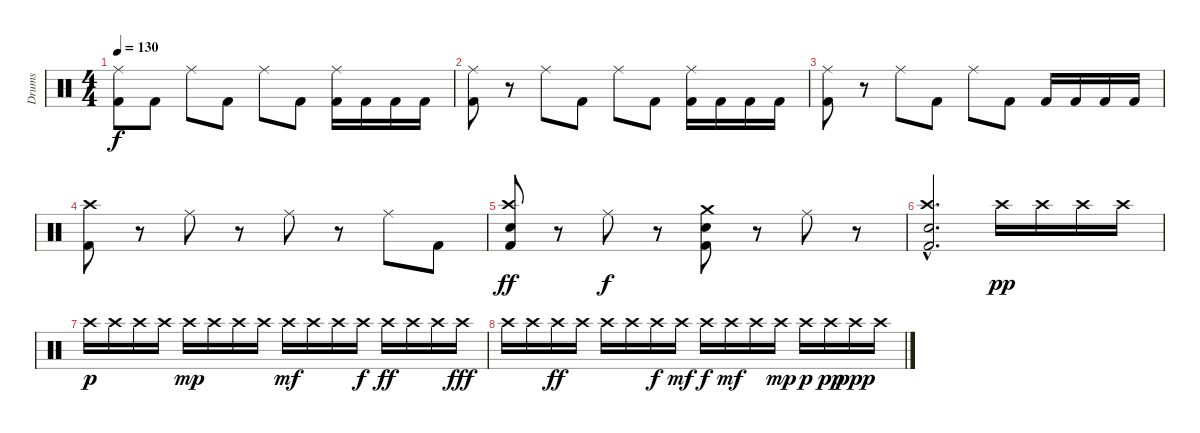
\track ("Drums" "Drums") {instrument percussion}
\staff {score}
\articulation defaults
\ts (4 4)
\tempo 130
\clef neutral
\ks c
("Ride (middle)" "Kick (hit) 2").8{dy f} "Kick (hit) 2".8 "Ride (middle)".8 "Kick (hit) 2".8 "Ride (middle)".8 "Kick (hit) 2".8 ("Ride (middle)" "Kick (hit) 2").16 "Kick (hit) 2".16 "Kick (hit) 2".16 "Kick (hit) 2".16 |
("Ride (middle)" "Kick (hit) 2").8 r.8 "Ride (middle)".8 "Kick (hit) 2".8 "Ride (middle)".8 "Kick (hit) 2".8 ("Ride (middle)" "Kick (hit) 2").16 "Kick (hit) 2".16 "Kick (hit) 2".16 "Kick (hit) 2".16 |
("Ride (middle)" "Kick (hit) 2").8 r.8 "Ride (middle)".8 "Kick (hit) 2".8 "Ride (middle)".8 "Kick (hit) 2".8 "Kick (hit) 2".16 "Kick (hit) 2".16 "Kick (hit) 2".16 "Kick (hit) 2".16 |
("Crash high (hit)" "Kick (hit) 2").8 r.8 "Ride (middle)".8 r.8 "Ride (middle)".8 r.8 "Ride (middle)".8 "Kick (hit) 2".8 |
("Crash high (hit)" "Snare (hit) 2" "Kick (hit) 2").8{dy ff} r.8 "Ride (middle)".8{dy f} r.8 ("Crash medium (hit)" "Snare (hit) 2" "Kick (hit) 2").8 r.8 "Ride (middle)".8 r.8 |
("Crash high (hit)"{hac} "Snare (hit) 2"{hac} "Kick (hit) 2"{hac}).2{d} "Crash high (hit)".16{dy pp} "Crash high (hit)".16 "Crash high (hit)".16 "Crash high (hit)".16 |
"Crash high (hit)".16{dy p} "Crash high (hit)".16 "Crash high (hit)".16 "Crash high (hit)".16 "Crash high (hit)".16{dy mp} "Crash high (hit)".16 "Crash high (hit)".16 "Crash high (hit)".16 "Crash high (hit)".16{dy mf} "Crash high (hit)".16 "Crash high (hit)".16 "Crash high (hit)".16{dy f} "Crash high (hit)".16{dy ff} "Crash high (hit)".16 "Crash high (hit)".16 "Crash high (hit)".16{dy fff} |
"Crash high (hit)".16 "Crash high (hit)".16 "Crash high (hit)".16{dy ff} "Crash high (hit)".16 "Crash high (hit)".16 "Crash high (hit)".16 "Crash high (hit)".16{dy f} "Crash high (hit)".16{dy mf} "Crash high (hit)".16{dy f} "Crash high (hit)".16{dy mf} "Crash high (hit)".16 "Crash high (hit)".16{dy mp} "Crash high (hit)".16{dy p} "Crash high (hit)".16{dy pp} "Crash high (hit)".16{dy ppp} "Crash high (hit)".16
